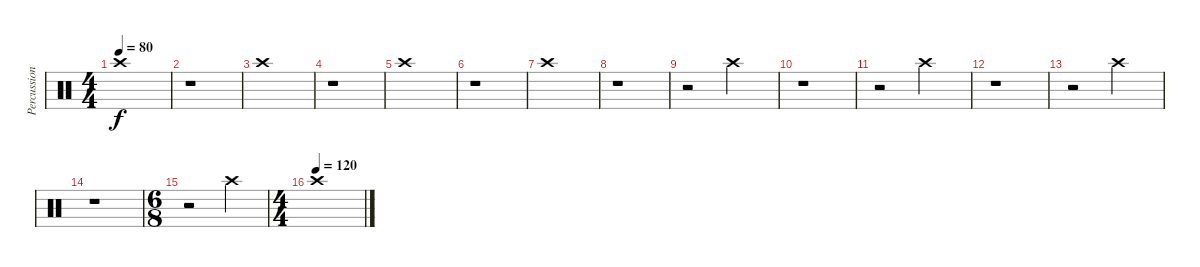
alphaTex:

\track ("Percussion" "Percussion") {instrument percussion}
\staff {score}
\articulation defaults
\ts (4 4)
\tempo 80
\clef neutral
\ks c "Crash high (hit)".1{dy f}
|
r.1 |
"Crash high (hit)".1 |
r.1 |
"Crash high (hit)".1 |
r.1 |
"Crash high (hit)".1 |
r.1 |
r.2 "Crash high (hit)".2 |
r.1 |
r.2 "Crash high (hit)".2 |
r.1 |
r.2 "Crash high (hit)".2 |
r.1 |
\ts (6 8)
r.2 "Crash high (hit)".4 |
\ts (4 4)
\tempo (120)
"Crash high (hit)".1
